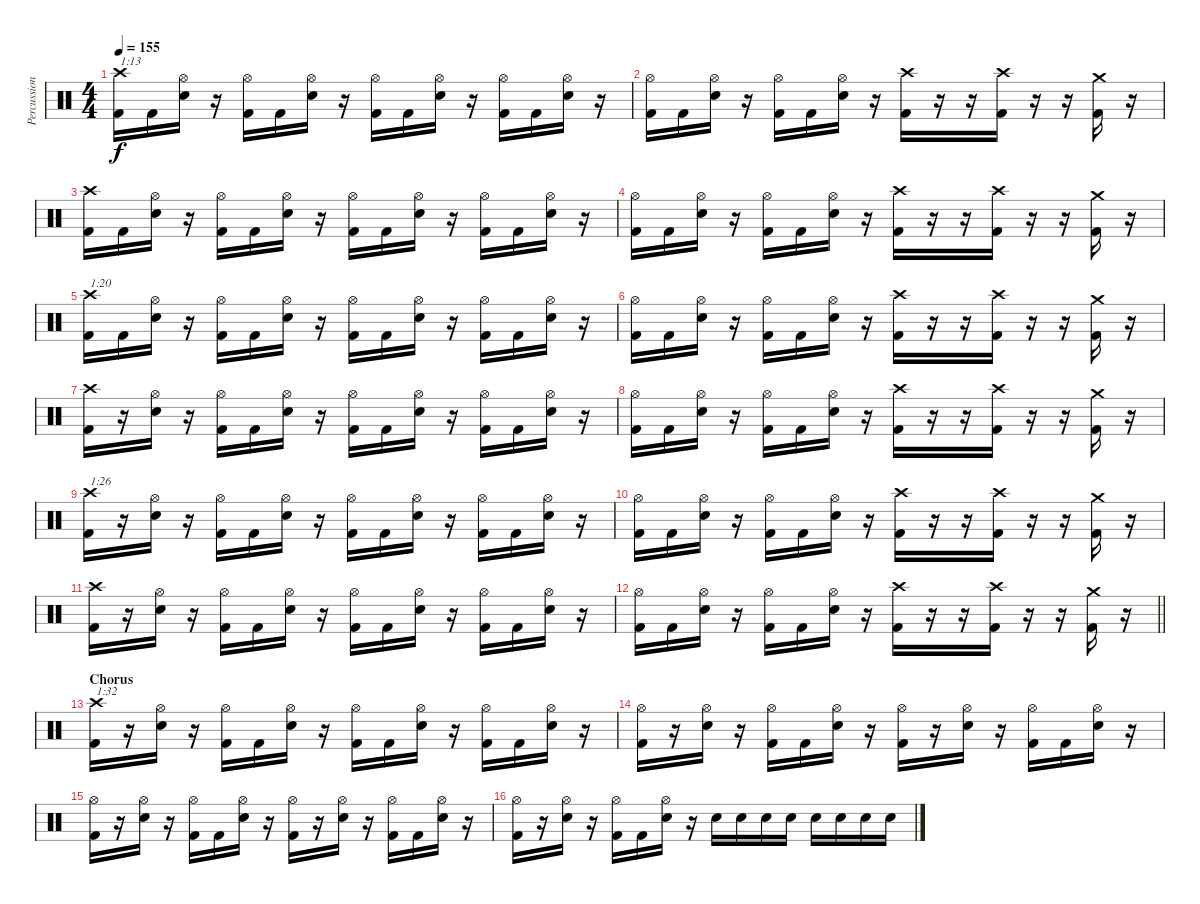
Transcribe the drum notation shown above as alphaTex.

\track ("Percussion" "Percussion") {instrument percussion}
\staff {score}
\articulation defaults
\ts (4 4)
\tempo 155
\clef neutral
\ks c
("Crash high (hit)" "Kick (hit) 2").16{txt "1:13" dy f} "Kick (hit) 2".16 ("Hi-Hat (open)" "Snare (hit) 2").16 r.16 ("Hi-Hat (open)" "Kick (hit) 2").16 "Kick (hit) 2".16 ("Hi-Hat (open)" "Snare (hit) 2").16 r.16 ("Hi-Hat (open)" "Kick (hit) 2").16 "Kick (hit) 2".16 ("Hi-Hat (open)" "Snare (hit) 2").16 r.16 ("Hi-Hat (open)" "Kick (hit) 2").16 "Kick (hit) 2".16 ("Hi-Hat (open)" "Snare (hit) 2").16 r.16 |
("Hi-Hat (open)" "Kick (hit) 2").16 "Kick (hit) 2".16 ("Hi-Hat (open)" "Snare (hit) 2").16 r.16 ("Hi-Hat (open)" "Kick (hit) 2").16 "Kick (hit) 2".16 ("Hi-Hat (open)" "Snare (hit) 2").16 r.16 ("Crash high (hit)" "Kick (hit) 2").16 r.16 r.16 ("Crash high (hit)" "Kick (hit) 2").16 r.16 r.16 ("Crash medium (hit)" "Kick (hit) 2").16 r.16 |
("Crash high (hit)" "Kick (hit) 2").16 "Kick (hit) 2".16 ("Hi-Hat (open)" "Snare (hit) 2").16 r.16 ("Hi-Hat (open)" "Kick (hit) 2").16 "Kick (hit) 2".16 ("Hi-Hat (open)" "Snare (hit) 2").16 r.16 ("Hi-Hat (open)" "Kick (hit) 2").16 "Kick (hit) 2".16 ("Hi-Hat (open)" "Snare (hit) 2").16 r.16 ("Hi-Hat (open)" "Kick (hit) 2").16 "Kick (hit) 2".16 ("Hi-Hat (open)" "Snare (hit) 2").16 r.16 |
("Hi-Hat (open)" "Kick (hit) 2").16 "Kick (hit) 2".16 ("Hi-Hat (open)" "Snare (hit) 2").16 r.16 ("Hi-Hat (open)" "Kick (hit) 2").16 "Kick (hit) 2".16 ("Hi-Hat (open)" "Snare (hit) 2").16 r.16 ("Crash high (hit)" "Kick (hit) 2").16 r.16 r.16 ("Crash high (hit)" "Kick (hit) 2").16 r.16 r.16 ("Crash medium (hit)" "Kick (hit) 2").16 r.16 |
("Crash high (hit)" "Kick (hit) 2").16{txt "1:20"} "Kick (hit) 2".16 ("Hi-Hat (open)" "Snare (hit) 2").16 r.16 ("Hi-Hat (open)" "Kick (hit) 2").16 "Kick (hit) 2".16 ("Hi-Hat (open)" "Snare (hit) 2").16 r.16 ("Hi-Hat (open)" "Kick (hit) 2").16 "Kick (hit) 2".16 ("Hi-Hat (open)" "Snare (hit) 2").16 r.16 ("Hi-Hat (open)" "Kick (hit) 2").16 "Kick (hit) 2".16 ("Hi-Hat (open)" "Snare (hit) 2").16 r.16 |
("Hi-Hat (open)" "Kick (hit) 2").16 "Kick (hit) 2".16 ("Hi-Hat (open)" "Snare (hit) 2").16 r.16 ("Hi-Hat (open)" "Kick (hit) 2").16 "Kick (hit) 2".16 ("Hi-Hat (open)" "Snare (hit) 2").16 r.16 ("Crash high (hit)" "Kick (hit) 2").16 r.16 r.16 ("Crash high (hit)" "Kick (hit) 2").16 r.16 r.16 ("Crash medium (hit)" "Kick (hit) 2").16 r.16 |
("Crash high (hit)" "Kick (hit) 2").16 r.16 ("Hi-Hat (open)" "Snare (hit) 2").16 r.16 ("Hi-Hat (open)" "Kick (hit) 2").16 "Kick (hit) 2".16 ("Hi-Hat (open)" "Snare (hit) 2").16 r.16 ("Hi-Hat (open)" "Kick (hit) 2").16 "Kick (hit) 2".16 ("Hi-Hat (open)" "Snare (hit) 2").16 r.16 ("Hi-Hat (open)" "Kick (hit) 2").16 "Kick (hit) 2".16 ("Hi-Hat (open)" "Snare (hit) 2").16 r.16 |
("Hi-Hat (open)" "Kick (hit) 2").16 "Kick (hit) 2".16 ("Hi-Hat (open)" "Snare (hit) 2").16 r.16 ("Hi-Hat (open)" "Kick (hit) 2").16 "Kick (hit) 2".16 ("Hi-Hat (open)" "Snare (hit) 2").16 r.16 ("Crash high (hit)" "Kick (hit) 2").16 r.16 r.16 ("Crash high (hit)" "Kick (hit) 2").16 r.16 r.16 ("Crash medium (hit)" "Kick (hit) 2").16 r.16 |
("Crash high (hit)" "Kick (hit) 2").16{txt "1:26"} r.16 ("Hi-Hat (open)" "Snare (hit) 2").16 r.16 ("Hi-Hat (open)" "Kick (hit) 2").16 "Kick (hit) 2".16 ("Hi-Hat (open)" "Snare (hit) 2").16 r.16 ("Hi-Hat (open)" "Kick (hit) 2").16 "Kick (hit) 2".16 ("Hi-Hat (open)" "Snare (hit) 2").16 r.16 ("Hi-Hat (open)" "Kick (hit) 2").16 "Kick (hit) 2".16 ("Hi-Hat (open)" "Snare (hit) 2").16 r.16 |
("Hi-Hat (open)" "Kick (hit) 2").16 "Kick (hit) 2".16 ("Hi-Hat (open)" "Snare (hit) 2").16 r.16 ("Hi-Hat (open)" "Kick (hit) 2").16 "Kick (hit) 2".16 ("Hi-Hat (open)" "Snare (hit) 2").16 r.16 ("Crash high (hit)" "Kick (hit) 2").16 r.16 r.16 ("Crash high (hit)" "Kick (hit) 2").16 r.16 r.16 ("Crash medium (hit)" "Kick (hit) 2").16 r.16 |
("Crash high (hit)" "Kick (hit) 2").16 r.16 ("Hi-Hat (open)" "Snare (hit) 2").16 r.16 ("Hi-Hat (open)" "Kick (hit) 2").16 "Kick (hit) 2".16 ("Hi-Hat (open)" "Snare (hit) 2").16 r.16 ("Hi-Hat (open)" "Kick (hit) 2").16 "Kick (hit) 2".16 ("Hi-Hat (open)" "Snare (hit) 2").16 r.16 ("Hi-Hat (open)" "Kick (hit) 2").16 "Kick (hit) 2".16 ("Hi-Hat (open)" "Snare (hit) 2").16 r.16 |
\barLineRight lightlight
("Hi-Hat (open)" "Kick (hit) 2").16 "Kick (hit) 2".16 ("Hi-Hat (open)" "Snare (hit) 2").16 r.16 ("Hi-Hat (open)" "Kick (hit) 2").16 "Kick (hit) 2".16 ("Hi-Hat (open)" "Snare (hit) 2").16 r.16 ("Crash high (hit)" "Kick (hit) 2").16 r.16 r.16 ("Crash high (hit)" "Kick (hit) 2").16 r.16 r.16 ("Crash medium (hit)" "Kick (hit) 2").16 r.16 |
\section ("" "Chorus")
("Crash high (hit)" "Kick (hit) 2").16{txt "1:32"} r.16 ("Hi-Hat (open)" "Snare (hit) 2").16 r.16 ("Hi-Hat (open)" "Kick (hit) 2").16 "Kick (hit) 2".16 ("Hi-Hat (open)" "Snare (hit) 2").16 r.16 ("Hi-Hat (open)" "Kick (hit) 2").16 "Kick (hit) 2".16 ("Hi-Hat (open)" "Snare (hit) 2").16 r.16 ("Hi-Hat (open)" "Kick (hit) 2").16 "Kick (hit) 2".16 ("Hi-Hat (open)" "Snare (hit) 2").16 r.16 |
("Hi-Hat (open)" "Kick (hit) 2").16 r.16 ("Hi-Hat (open)" "Snare (hit) 2").16 r.16 ("Hi-Hat (open)" "Kick (hit) 2").16 "Kick (hit) 2".16 ("Hi-Hat (open)" "Snare (hit) 2").16 r.16 ("Hi-Hat (open)" "Kick (hit) 2").16 r.16 ("Hi-Hat (open)" "Snare (hit) 2").16 r.16 ("Hi-Hat (open)" "Kick (hit) 2").16 "Kick (hit) 2".16 ("Hi-Hat (open)" "Snare (hit) 2").16 r.16 |
("Hi-Hat (open)" "Kick (hit) 2").16 r.16 ("Hi-Hat (open)" "Snare (hit) 2").16 r.16 ("Hi-Hat (open)" "Kick (hit) 2").16 "Kick (hit) 2".16 ("Hi-Hat (open)" "Snare (hit) 2").16 r.16 ("Hi-Hat (open)" "Kick (hit) 2").16 r.16 ("Hi-Hat (open)" "Snare (hit) 2").16 r.16 ("Hi-Hat (open)" "Kick (hit) 2").16 "Kick (hit) 2".16 ("Hi-Hat (open)" "Snare (hit) 2").16 r.16 |
("Hi-Hat (open)" "Kick (hit) 2").16 r.16 ("Hi-Hat (open)" "Snare (hit) 2").16 r.16 ("Hi-Hat (open)" "Kick (hit) 2").16 "Kick (hit) 2".16 ("Hi-Hat (open)" "Snare (hit) 2").16 r.16 "Snare (hit) 2".16 "Snare (hit) 2".16 "Snare (hit) 2".16 "Snare (hit) 2".16 "Snare (hit) 2".16 "Snare (hit) 2".16 "Snare (hit) 2".16 "Snare (hit) 2".16
